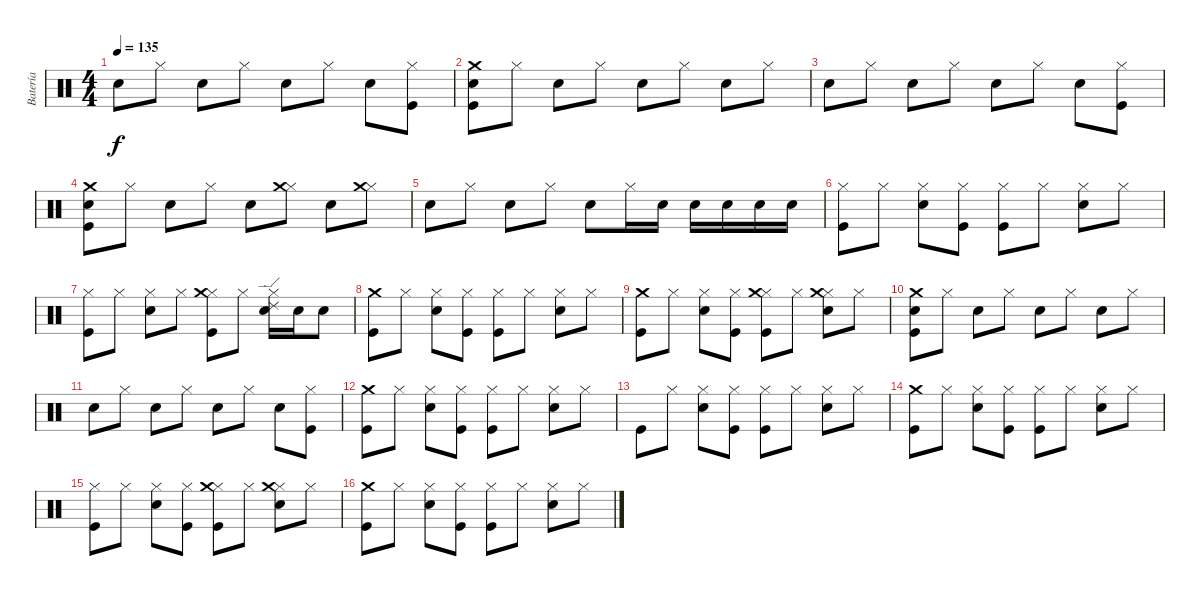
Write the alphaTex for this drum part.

\track ("Batería" "Batería") {instrument percussion}
\staff {score}
\articulation defaults
\ts (4 4)
\tempo 135
\clef neutral
\ks c "Snare (hit) 2".8{dy f} "Hi-Hat (closed)".8 "Snare (hit) 2".8 "Hi-Hat (closed)".8 "Snare (hit) 2".8 "Hi-Hat (closed)".8 "Snare (hit) 2".8
("Kick (hit)" "Hi-Hat (closed)").8 |
("Kick (hit)" "Snare (hit) 2" "Crash medium (hit)").8 "Hi-Hat (closed)".8 "Snare (hit) 2".8 "Hi-Hat (closed)".8 "Snare (hit) 2".8 "Hi-Hat (closed)".8 "Snare (hit) 2".8 "Hi-Hat (closed)".8 |
"Snare (hit) 2".8 "Hi-Hat (closed)".8 "Snare (hit) 2".8 "Hi-Hat (closed)".8 "Snare (hit) 2".8 "Hi-Hat (closed)".8 "Snare (hit) 2".8 ("Kick (hit)" "Hi-Hat (closed)").8 |
("Kick (hit)" "Snare (hit) 2" "Crash medium (hit)").8 "Hi-Hat (closed)".8 "Snare (hit) 2".8 "Hi-Hat (closed)".8 "Snare (hit) 2".8 ("Hi-Hat (closed)" "Crash medium (hit)").8 "Snare (hit) 2".8 ("Hi-Hat (closed)" "Crash medium (hit)").8 |
"Snare (hit) 2".8 "Hi-Hat (closed)".8 "Snare (hit) 2".8 "Hi-Hat (closed)".8 "Snare (hit) 2".8 "Hi-Hat (closed)".16 "Snare (hit) 2".16 "Snare (hit) 2".16 "Snare (hit) 2".16 "Snare (hit) 2".16 "Snare (hit) 2".16 |
("Hi-Hat (closed)" "Kick (hit)").8 "Hi-Hat (closed)".8 ("Hi-Hat (closed)" "Snare (hit) 2").8 ("Hi-Hat (closed)" "Kick (hit)").8 ("Hi-Hat (closed)" "Kick (hit)").8 "Hi-Hat (closed)".8 ("Hi-Hat (closed)" "Snare (hit) 2").8 "Hi-Hat (closed)".8 |
("Hi-Hat (closed)" "Kick (hit)").8 "Hi-Hat (closed)".8 ("Hi-Hat (closed)" "Snare (hit) 2").8 "Hi-Hat (closed)".8 ("Hi-Hat (closed)" "Kick (hit)" "Crash medium (hit)").8 "Hi-Hat (closed)".8 ("Hi-Hat (closed)" "Snare (hit) 2" "Ride (edge) 2").16 "Snare (hit) 2".16 "Snare (hit) 2".8 |
("Kick (hit)" "Crash medium (hit)").8 "Hi-Hat (closed)".8 ("Hi-Hat (closed)" "Snare (hit) 2").8 ("Hi-Hat (closed)" "Kick (hit)").8 ("Hi-Hat (closed)" "Kick (hit)").8 "Hi-Hat (closed)".8 ("Hi-Hat (closed)" "Snare (hit) 2").8 "Hi-Hat (closed)".8 |
("Kick (hit)" "Crash medium (hit)").8 "Hi-Hat (closed)".8 ("Hi-Hat (closed)" "Snare (hit) 2").8 ("Hi-Hat (closed)" "Kick (hit)").8 ("Hi-Hat (closed)" "Kick (hit)" "Crash medium (hit)").8 "Hi-Hat (closed)".8 ("Hi-Hat (closed)" "Snare (hit) 2" "Crash medium (hit)").8 "Hi-Hat (closed)".8 |
("Kick (hit)" "Snare (hit) 2" "Crash medium (hit)").8 "Hi-Hat (closed)".8 "Snare (hit) 2".8 "Hi-Hat (closed)".8 "Snare (hit) 2".8 "Hi-Hat (closed)".8 "Snare (hit) 2".8 "Hi-Hat (closed)".8 |
"Snare (hit) 2".8 "Hi-Hat (closed)".8 "Snare (hit) 2".8 "Hi-Hat (closed)".8 "Snare (hit) 2".8 "Hi-Hat (closed)".8 "Snare (hit) 2".8 ("Kick (hit)" "Hi-Hat (closed)").8 |
("Kick (hit)" "Crash medium (hit)").8 "Hi-Hat (closed)".8 ("Hi-Hat (closed)" "Snare (hit) 2").8 ("Hi-Hat (closed)" "Kick (hit)").8 ("Hi-Hat (closed)" "Kick (hit)").8 "Hi-Hat (closed)".8 ("Hi-Hat (closed)" "Snare (hit) 2").8 "Hi-Hat (closed)".8 |
"Kick (hit)".8 "Hi-Hat (closed)".8 ("Hi-Hat (closed)" "Snare (hit) 2").8 ("Hi-Hat (closed)" "Kick (hit)").8 ("Hi-Hat (closed)" "Kick (hit)").8 "Hi-Hat (closed)".8 ("Hi-Hat (closed)" "Snare (hit) 2").8 "Hi-Hat (closed)".8 |
("Kick (hit)" "Crash medium (hit)").8 "Hi-Hat (closed)".8 ("Hi-Hat (closed)" "Snare (hit) 2").8 ("Hi-Hat (closed)" "Kick (hit)").8 ("Hi-Hat (closed)" "Kick (hit)").8 "Hi-Hat (closed)".8 ("Hi-Hat (closed)" "Snare (hit) 2").8 "Hi-Hat (closed)".8 |
("Kick (hit)" "Hi-Hat (closed)").8 "Hi-Hat (closed)".8 ("Hi-Hat (closed)" "Snare (hit) 2").8 ("Hi-Hat (closed)" "Kick (hit)").8 ("Hi-Hat (closed)" "Kick (hit)" "Crash medium (hit)").8 "Hi-Hat (closed)".8 ("Hi-Hat (closed)" "Snare (hit) 2" "Crash medium (hit)").8 "Hi-Hat (closed)".8 |
("Kick (hit)" "Crash medium (hit)").8 "Hi-Hat (closed)".8 ("Hi-Hat (closed)" "Snare (hit) 2").8 ("Hi-Hat (closed)" "Kick (hit)").8 ("Hi-Hat (closed)" "Kick (hit)").8 "Hi-Hat (closed)".8 ("Hi-Hat (closed)" "Snare (hit) 2").8 "Hi-Hat (closed)".8
